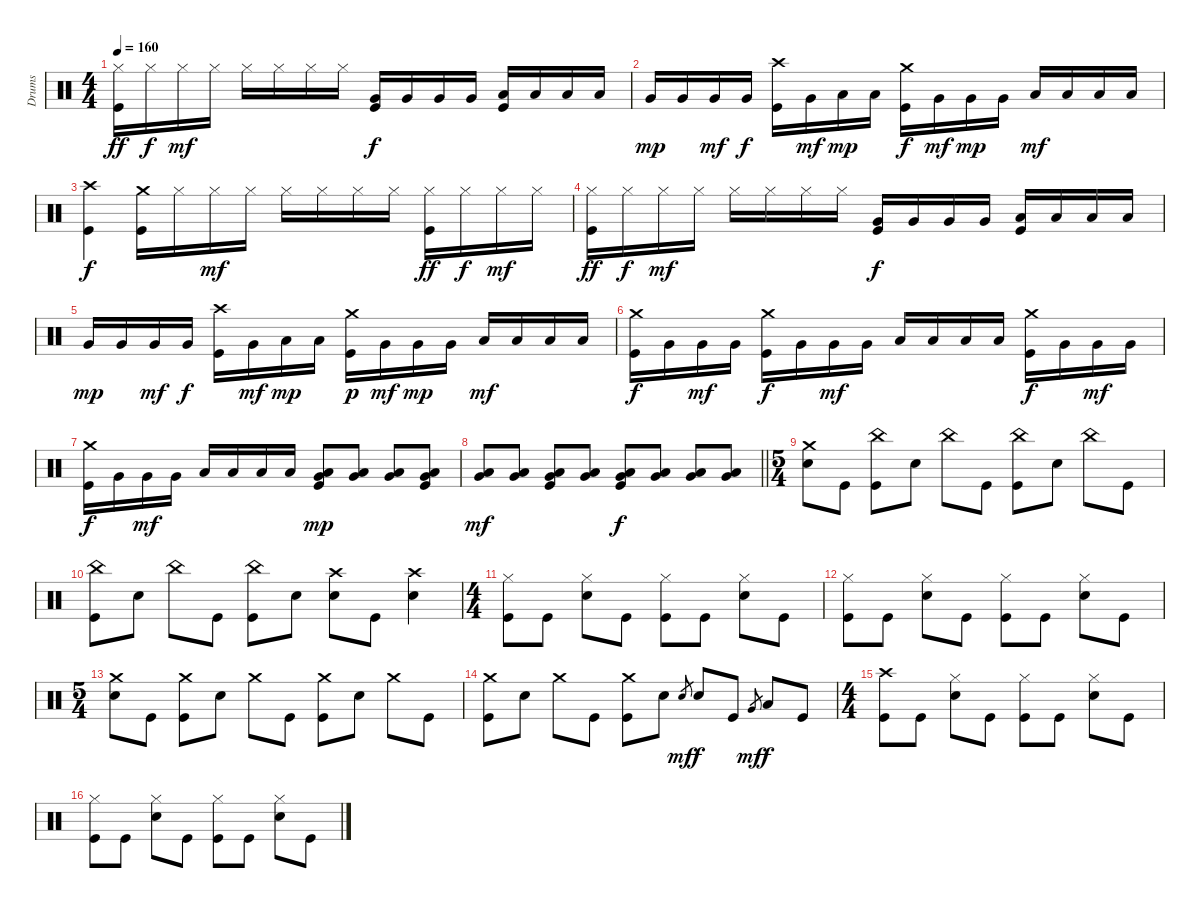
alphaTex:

\track ("Drums" "Drums") {instrument percussion}
\staff {score}
\articulation defaults
\ts (4 4)
\tempo 160
\clef neutral
\ks c
("Hi-Hat (closed)" "Kick (hit)").16{dy ff} "Hi-Hat (closed)".16{dy f} "Hi-Hat (closed)".16{dy mf} "Hi-Hat (closed)".16 "Hi-Hat (closed)".16 "Hi-Hat (closed)".16 "Hi-Hat (closed)".16 "Hi-Hat (closed)".16 ("Very Low Tom (hit)" "Kick (hit)").16{dy f} "Very Low Tom (hit)".16 "Very Low Tom (hit)".16 "Very Low Tom (hit)".16 ("Low Floor Tom (hit)" "Kick (hit)").16 "Low Floor Tom (hit)".16 "Low Floor Tom (hit)".16 "Low Floor Tom (hit)".16 |
"Very Low Tom (hit)".16{dy mp} "Very Low Tom (hit)".16 "Very Low Tom (hit)".16{dy mf} "Very Low Tom (hit)".16{dy f} ("Crash high (hit)" "Kick (hit)").16 "Very Low Tom (hit)".16{dy mf} "Low Floor Tom (hit)".16{dy mp} "Low Floor Tom (hit)".16 ("Crash medium (hit)" "Kick (hit)").16{dy f} "Very Low Tom (hit)".16{dy mf} "Very Low Tom (hit)".16{dy mp} "Very Low Tom (hit)".16 "Low Floor Tom (hit)".16{dy mf} "Low Floor Tom (hit)".16 "Low Floor Tom (hit)".16 "Low Floor Tom (hit)".16 |
("Crash high (hit)" "Kick (hit)").4{dy f} ("Crash medium (hit)" "Kick (hit)").16 "Hi-Hat (closed)".16 "Hi-Hat (closed)".16{dy mf} "Hi-Hat (closed)".16 "Hi-Hat (closed)".16 "Hi-Hat (closed)".16 "Hi-Hat (closed)".16 "Hi-Hat (closed)".16 ("Hi-Hat (closed)" "Kick (hit)").16{dy ff} "Hi-Hat (closed)".16{dy f} "Hi-Hat (closed)".16{dy mf} "Hi-Hat (closed)".16 |
("Hi-Hat (closed)" "Kick (hit)").16{dy ff} "Hi-Hat (closed)".16{dy f} "Hi-Hat (closed)".16{dy mf} "Hi-Hat (closed)".16 "Hi-Hat (closed)".16 "Hi-Hat (closed)".16 "Hi-Hat (closed)".16 "Hi-Hat (closed)".16 ("Very Low Tom (hit)" "Kick (hit)").16{dy f} "Very Low Tom (hit)".16 "Very Low Tom (hit)".16 "Very Low Tom (hit)".16 ("Low Floor Tom (hit)" "Kick (hit)").16 "Low Floor Tom (hit)".16 "Low Floor Tom (hit)".16 "Low Floor Tom (hit)".16 |
"Very Low Tom (hit)".16{dy mp} "Very Low Tom (hit)".16 "Very Low Tom (hit)".16{dy mf} "Very Low Tom (hit)".16{dy f} ("Crash high (hit)" "Kick (hit)").16 "Very Low Tom (hit)".16{dy mf} "Low Floor Tom (hit)".16{dy mp} "Low Floor Tom (hit)".16 ("Crash medium (hit)" "Kick (hit)").16{dy p} "Very Low Tom (hit)".16{dy mf} "Very Low Tom (hit)".16{dy mp} "Very Low Tom (hit)".16 "Low Floor Tom (hit)".16{dy mf} "Low Floor Tom (hit)".16 "Low Floor Tom (hit)".16 "Low Floor Tom (hit)".16 |
("Crash medium (hit)" "Kick (hit)").16{dy f} "Very Low Tom (hit)".16 "Very Low Tom (hit)".16{dy mf} "Very Low Tom (hit)".16 ("Crash medium (hit)" "Kick (hit)").16{dy f} "Very Low Tom (hit)".16 "Very Low Tom (hit)".16{dy mf} "Very Low Tom (hit)".16 "Low Floor Tom (hit)".16 "Low Floor Tom (hit)".16 "Low Floor Tom (hit)".16 "Low Floor Tom (hit)".16 ("Crash medium (hit)" "Kick (hit)").16{dy f} "Very Low Tom (hit)".16 "Very Low Tom (hit)".16{dy mf} "Very Low Tom (hit)".16 |
("Crash medium (hit)" "Kick (hit)").16{dy f} "Very Low Tom (hit)".16 "Very Low Tom (hit)".16{dy mf} "Very Low Tom (hit)".16 "Low Floor Tom (hit)".16 "Low Floor Tom (hit)".16 "Low Floor Tom (hit)".16 "Low Floor Tom (hit)".16 ("Very Low Tom (hit)" "Low Floor Tom (hit)" "Kick (hit)").8{dy mp} ("Very Low Tom (hit)" "Low Floor Tom (hit)").8 ("Very Low Tom (hit)" "Low Floor Tom (hit)").8 ("Very Low Tom (hit)" "Low Floor Tom (hit)" "Kick (hit)").8 |
\barLineRight lightlight
("Very Low Tom (hit)" "Low Floor Tom (hit)").8{dy mf} ("Very Low Tom (hit)" "Low Floor Tom (hit)").8 ("Very Low Tom (hit)" "Low Floor Tom (hit)" "Kick (hit)").8 ("Very Low Tom (hit)" "Low Floor Tom (hit)").8 ("Very Low Tom (hit)" "Low Floor Tom (hit)" "Kick (hit)").8{dy f} ("Very Low Tom (hit)" "Low Floor Tom (hit)").8 ("Very Low Tom (hit)" "Low Floor Tom (hit)").8 ("Very Low Tom (hit)" "Low Floor Tom (hit)").8 |
\ts (5 4)
("Crash medium (hit)" "Snare (hit) 2").8 "Kick (hit)".8 ("China (hit)" "Kick (hit)").8 "Snare (hit) 2".8 "China (hit)".8 "Kick (hit)".8 ("China (hit)" "Kick (hit)").8 "Snare (hit) 2".8 "China (hit)".8 "Kick (hit)".8 |
("China (hit)" "Kick (hit)").8 "Snare (hit) 2".8 "China (hit)".8 "Kick (hit)".8 ("China (hit)" "Kick (hit)").8 "Snare (hit) 2".8 ("Crash high (hit)" "Snare (hit) 2").8 "Kick (hit)".8 ("Crash high (hit)" "Snare (hit) 2").4 |
\ts (4 4)
("Hi-Hat (closed)" "Kick (hit)").8 "Kick (hit)".8 ("Hi-Hat (closed)" "Snare (hit) 2").8 "Kick (hit)".8 ("Hi-Hat (closed)" "Kick (hit)").8 "Kick (hit)".8 ("Hi-Hat (closed)" "Snare (hit) 2").8 "Kick (hit)".8 |
("Hi-Hat (closed)" "Kick (hit)").8 "Kick (hit)".8 ("Hi-Hat (closed)" "Snare (hit) 2").8 "Kick (hit)".8 ("Hi-Hat (closed)" "Kick (hit)").8 "Kick (hit)".8 ("Hi-Hat (closed)" "Snare (hit) 2").8 "Kick (hit)".8 |
\ts (5 4)
("Crash medium (hit)" "Snare (hit) 2").8 "Kick (hit)".8 ("Crash medium (hit)" "Kick (hit)").8 "Snare (hit) 2".8 "Crash medium (hit)".8 "Kick (hit)".8 ("Crash medium (hit)" "Kick (hit)").8 "Snare (hit) 2".8 "Crash medium (hit)".8 "Kick (hit)".8 |
("Crash medium (hit)" "Kick (hit)").8 "Snare (hit) 2".8 "Crash medium (hit)".8 "Kick (hit)".8 ("Crash medium (hit)" "Kick (hit)").8 "Snare (hit) 2".8 "Snare (hit) 2".8{gr dy mf} "Snare (hit) 2".8{dy f} "Kick (hit)".8 "Very Low Tom (hit)".8{gr dy mf} "Low Floor Tom (hit)".8{dy f} "Kick (hit)".8 |
\ts (4 4)
("Crash high (hit)" "Kick (hit)").8 "Kick (hit)".8 ("Hi-Hat (closed)" "Snare (hit) 2").8 "Kick (hit)".8 ("Hi-Hat (closed)" "Kick (hit)").8 "Kick (hit)".8 ("Hi-Hat (closed)" "Snare (hit) 2").8 "Kick (hit)".8 |
("Hi-Hat (closed)" "Kick (hit)").8 "Kick (hit)".8 ("Hi-Hat (closed)" "Snare (hit) 2").8 "Kick (hit)".8 ("Hi-Hat (closed)" "Kick (hit)").8 "Kick (hit)".8 ("Hi-Hat (closed)" "Snare (hit) 2").8 "Kick (hit)".8
